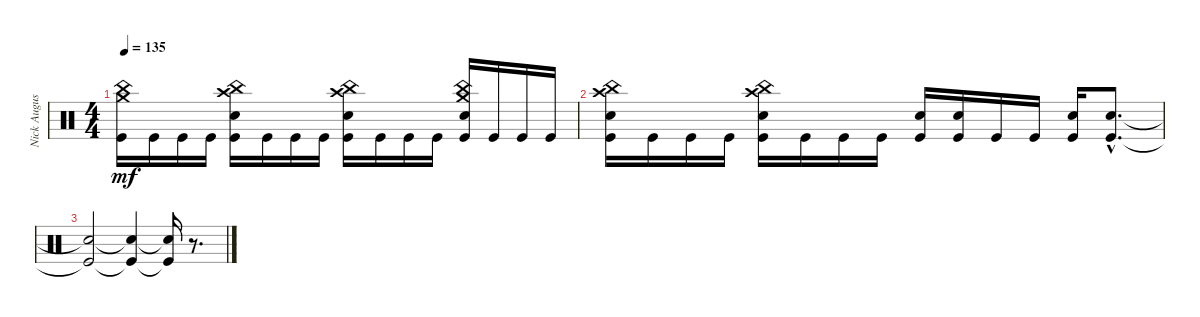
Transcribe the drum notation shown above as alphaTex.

\track ("Nick Augusto" "Nick Augus") {instrument percussion}
\staff {score}
\articulation defaults
\ts (4 4)
\tempo 135
\clef neutral
\ks c
("Kick (hit)" "China (hit)" "Crash medium (hit)").16{dy mf} "Kick (hit)".16 "Kick (hit)".16 "Kick (hit)".16 ("Kick (hit)" "Snare (hit) 2" "China (hit)" "Crash high (hit)").16 "Kick (hit)".16 "Kick (hit)".16 "Kick (hit)".16 ("Kick (hit)" "Snare (hit) 2" "China (hit)" "Crash high (hit)").16 "Kick (hit)".16 "Kick (hit)".16 "Kick (hit)".16 ("Kick (hit)" "Snare (hit) 2" "China (hit)" "Crash medium (hit)").16 "Kick (hit)".16 "Kick (hit)".16 "Kick (hit)".16 |
("Kick (hit)" "Snare (hit) 2" "China (hit)" "Crash high (hit)").16 "Kick (hit)".16 "Kick (hit)".16 "Kick (hit)".16 ("Kick (hit)" "Snare (hit) 2" "China (hit)" "Crash high (hit)").16 "Kick (hit)".16 "Kick (hit)".16 "Kick (hit)".16 ("Kick (hit)" "Snare (hit) 2").16 ("Kick (hit)" "Snare (hit) 2").16 "Kick (hit)".16 "Kick (hit)".16 ("Kick (hit)" "Snare (hit) 2").16 ("Kick (hit)"{hac} "Snare (hit) 2"{hac}).8{d} |
("Kick (hit)"{t} "Snare (hit) 2"{t}).2 ("Kick (hit)"{t} "Snare (hit) 2"{t}).4 ("Kick (hit)"{t} "Snare (hit) 2"{t}).16 r.8{d}
